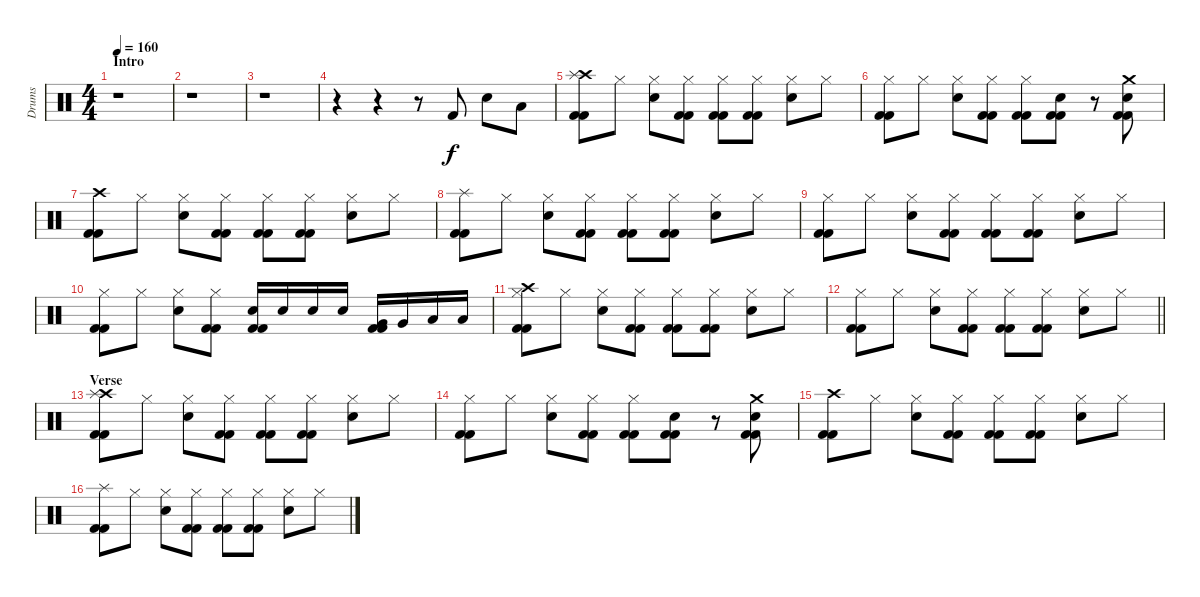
\track ("Drums" "Drums") {instrument percussion}
\staff {score}
\articulation defaults
\ts (4 4)
\section ("" "Intro")
\tempo 160
\clef neutral
\ks c
r.1{dy f} |
r.1 |
r.1 |
r.4 r.4 r.8 "Kick (hit) 2".8 "Electric Snare (hit)".8 "Low Tom (hit)".8 |
("Crash high (hit)" "Splash (hit)" "Kick (hit) 2" "Kick (hit) 2").8 "Hi-Hat (closed)".8 ("Hi-Hat (closed)" "Electric Snare (hit)").8 ("Hi-Hat (closed)" "Kick (hit) 2" "Kick (hit) 2").8 ("Hi-Hat (closed)" "Kick (hit) 2" "Kick (hit) 2").8 ("Hi-Hat (closed)" "Kick (hit) 2" "Kick (hit) 2").8 ("Hi-Hat (closed)" "Electric Snare (hit)").8 "Hi-Hat (closed)".8 |
("Hi-Hat (closed)" "Kick (hit) 2" "Kick (hit) 2").8 "Hi-Hat (closed)".8 ("Hi-Hat (closed)" "Electric Snare (hit)").8 ("Hi-Hat (closed)" "Kick (hit) 2" "Kick (hit) 2").8 ("Hi-Hat (closed)" "Kick (hit) 2" "Kick (hit) 2").8 ("Electric Snare (hit)" "Kick (hit) 2" "Kick (hit) 2").8 r.8 ("Crash medium (hit)" "Electric Snare (hit)" "Kick (hit) 2" "Kick (hit) 2").8 |
("Crash high (hit)" "Kick (hit) 2" "Kick (hit) 2").8 "Hi-Hat (closed)".8 ("Hi-Hat (closed)" "Electric Snare (hit)").8 ("Hi-Hat (closed)" "Kick (hit) 2" "Kick (hit) 2").8 ("Hi-Hat (closed)" "Kick (hit) 2" "Kick (hit) 2").8 ("Hi-Hat (closed)" "Kick (hit) 2" "Kick (hit) 2").8 ("Hi-Hat (closed)" "Electric Snare (hit)").8 "Hi-Hat (closed)".8 |
("Splash (hit)" "Kick (hit) 2" "Kick (hit) 2").8 "Hi-Hat (closed)".8 ("Hi-Hat (closed)" "Electric Snare (hit)").8 ("Hi-Hat (closed)" "Kick (hit) 2" "Kick (hit) 2").8 ("Hi-Hat (closed)" "Kick (hit) 2" "Kick (hit) 2").8 ("Hi-Hat (closed)" "Kick (hit) 2" "Kick (hit) 2").8 ("Hi-Hat (closed)" "Electric Snare (hit)").8 "Hi-Hat (closed)".8 |
("Hi-Hat (closed)" "Kick (hit) 2" "Kick (hit) 2").8 "Hi-Hat (closed)".8 ("Hi-Hat (closed)" "Electric Snare (hit)").8 ("Hi-Hat (closed)" "Kick (hit) 2" "Kick (hit) 2").8 ("Hi-Hat (closed)" "Kick (hit) 2" "Kick (hit) 2").8 ("Hi-Hat (closed)" "Kick (hit) 2" "Kick (hit) 2").8 ("Hi-Hat (closed)" "Electric Snare (hit)").8 "Hi-Hat (closed)".8 |
("Hi-Hat (closed)" "Kick (hit) 2" "Kick (hit) 2").8 "Hi-Hat (closed)".8 ("Hi-Hat (closed)" "Electric Snare (hit)").8 ("Hi-Hat (closed)" "Kick (hit) 2" "Kick (hit) 2").8 ("Electric Snare (hit)" "Kick (hit) 2" "Kick (hit) 2").16 "Electric Snare (hit)".16 "Electric Snare (hit)".16 "Electric Snare (hit)".16 ("Very Low Tom (hit)" "Kick (hit) 2" "Kick (hit) 2").16 "Very Low Tom (hit)".16 "Low Tom (hit)".16 "Low Tom (hit)".16 |
("Crash high (hit)" "Hi-Hat (closed)" "Kick (hit) 2" "Kick (hit) 2").8 "Hi-Hat (closed)".8 ("Hi-Hat (closed)" "Electric Snare (hit)").8 ("Hi-Hat (closed)" "Kick (hit) 2" "Kick (hit) 2").8 ("Hi-Hat (closed)" "Kick (hit) 2" "Kick (hit) 2").8 ("Hi-Hat (closed)" "Kick (hit) 2" "Kick (hit) 2").8 ("Hi-Hat (closed)" "Electric Snare (hit)").8 "Hi-Hat (closed)".8 |
\barLineRight lightlight
("Hi-Hat (closed)" "Kick (hit) 2" "Kick (hit) 2").8 "Hi-Hat (closed)".8 ("Hi-Hat (closed)" "Electric Snare (hit)").8 ("Hi-Hat (closed)" "Kick (hit) 2" "Kick (hit) 2").8 ("Hi-Hat (closed)" "Kick (hit) 2" "Kick (hit) 2").8 ("Hi-Hat (closed)" "Kick (hit) 2" "Kick (hit) 2").8 ("Hi-Hat (closed)" "Electric Snare (hit)").8 "Hi-Hat (closed)".8 |
\section ("" "Verse")
("Crash high (hit)" "Splash (hit)" "Kick (hit) 2" "Kick (hit) 2").8 "Hi-Hat (closed)".8 ("Hi-Hat (closed)" "Electric Snare (hit)").8 ("Hi-Hat (closed)" "Kick (hit) 2" "Kick (hit) 2").8 ("Hi-Hat (closed)" "Kick (hit) 2" "Kick (hit) 2").8 ("Hi-Hat (closed)" "Kick (hit) 2" "Kick (hit) 2").8 ("Hi-Hat (closed)" "Electric Snare (hit)").8 "Hi-Hat (closed)".8 |
("Hi-Hat (closed)" "Kick (hit) 2" "Kick (hit) 2").8 "Hi-Hat (closed)".8 ("Hi-Hat (closed)" "Electric Snare (hit)").8 ("Hi-Hat (closed)" "Kick (hit) 2" "Kick (hit) 2").8 ("Hi-Hat (closed)" "Kick (hit) 2" "Kick (hit) 2").8 ("Electric Snare (hit)" "Kick (hit) 2" "Kick (hit) 2").8 r.8 ("Crash medium (hit)" "Electric Snare (hit)" "Kick (hit) 2" "Kick (hit) 2").8 |
("Crash high (hit)" "Kick (hit) 2" "Kick (hit) 2").8 "Hi-Hat (closed)".8 ("Hi-Hat (closed)" "Electric Snare (hit)").8 ("Hi-Hat (closed)" "Kick (hit) 2" "Kick (hit) 2").8 ("Hi-Hat (closed)" "Kick (hit) 2" "Kick (hit) 2").8 ("Hi-Hat (closed)" "Kick (hit) 2" "Kick (hit) 2").8 ("Hi-Hat (closed)" "Electric Snare (hit)").8 "Hi-Hat (closed)".8 |
("Splash (hit)" "Kick (hit) 2" "Kick (hit) 2").8 "Hi-Hat (closed)".8 ("Hi-Hat (closed)" "Electric Snare (hit)").8 ("Hi-Hat (closed)" "Kick (hit) 2" "Kick (hit) 2").8 ("Hi-Hat (closed)" "Kick (hit) 2" "Kick (hit) 2").8 ("Hi-Hat (closed)" "Kick (hit) 2" "Kick (hit) 2").8 ("Hi-Hat (closed)" "Electric Snare (hit)").8 "Hi-Hat (closed)".8
